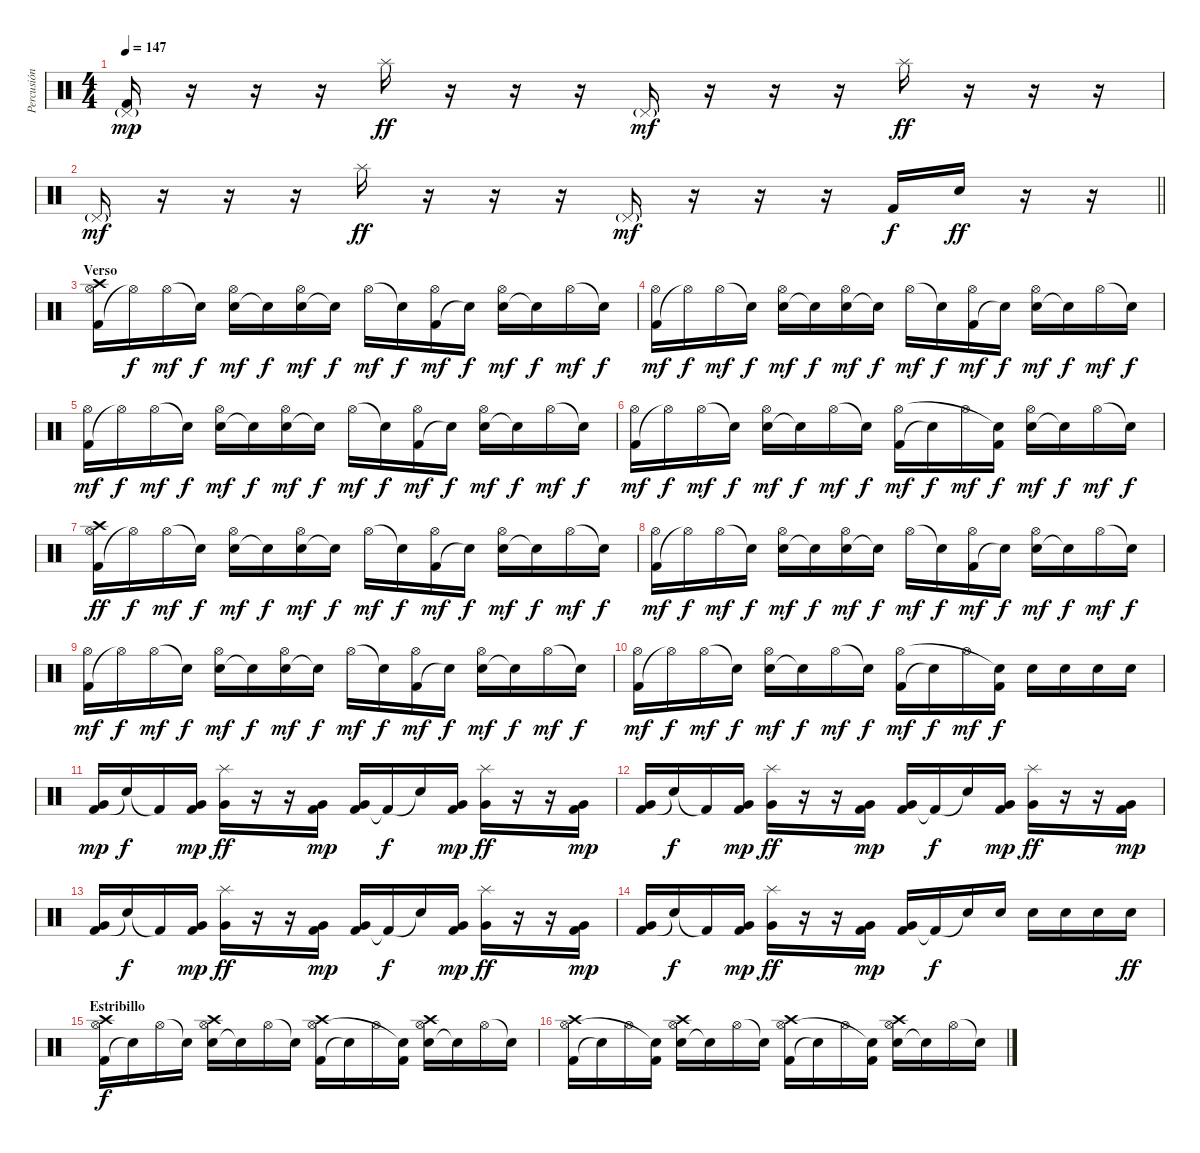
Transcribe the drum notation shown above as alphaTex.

\track ("Percusión" "Percusión") {instrument percussion}
\staff {score}
\articulation defaults
\ts (4 4)
\tempo 147
\clef neutral
\ks c
("Kick (hit) 2" "Pedal Hi-Hat (hit)"{g}).16{dy mp} r.16 r.16 r.16 "Splash (hit)".16{dy ff} r.16 r.16 r.16 "Pedal Hi-Hat (hit)"{g}.16{dy mf} r.16 r.16 r.16 "Splash (hit)".16{dy ff} r.16 r.16 r.16 |
\barLineRight lightlight "Pedal Hi-Hat (hit)"{g}.16{dy mf}
r.16 r.16 r.16 "Splash (hit)".16{dy ff} r.16 r.16 r.16 "Pedal Hi-Hat (hit)"{g}.16{dy mf} r.16 r.16 r.16 "Kick (hit) 2".16{dy f} "Electric Snare (hit)".16{dy ff} r.16 r.16 |
\section ("" "Verso")
("Kick (hit) 2" "Hi-Hat (open)" "Crash high (hit)").16 "Hi-Hat (open)"{t}.16{dy f} "Hi-Hat (open)".16{dy mf} "Snare (hit)"{t}.16{dy f} ("Electric Snare (hit)" "Hi-Hat (open)").16{dy mf} "Snare (hit)"{t}.16{dy f} ("Electric Snare (hit)" "Hi-Hat (open)").16{dy mf} "Snare (hit)"{t}.16{dy f} "Hi-Hat (open)".16{dy mf} "Snare (hit)"{t}.16{dy f} ("Kick (hit) 2" "Hi-Hat (open)").16{dy mf} "Snare (hit)"{t}.16{dy f} ("Electric Snare (hit)" "Hi-Hat (open)").16{dy mf} "Snare (hit)"{t}.16{dy f} "Hi-Hat (open)".16{dy mf} "Snare (hit)"{t}.16{dy f} |
("Kick (hit) 2" "Hi-Hat (open)").16{dy mf} "Hi-Hat (open)"{t}.16{dy f} "Hi-Hat (open)".16{dy mf} "Snare (hit)"{t}.16{dy f} ("Electric Snare (hit)" "Hi-Hat (open)").16{dy mf} "Snare (hit)"{t}.16{dy f} ("Electric Snare (hit)" "Hi-Hat (open)").16{dy mf} "Snare (hit)"{t}.16{dy f} "Hi-Hat (open)".16{dy mf} "Snare (hit)"{t}.16{dy f} ("Kick (hit) 2" "Hi-Hat (open)").16{dy mf} "Snare (hit)"{t}.16{dy f} ("Electric Snare (hit)" "Hi-Hat (open)").16{dy mf} "Snare (hit)"{t}.16{dy f} "Hi-Hat (open)".16{dy mf} "Snare (hit)"{t}.16{dy f} |
("Kick (hit) 2" "Hi-Hat (open)").16{dy mf} "Hi-Hat (open)"{t}.16{dy f} "Hi-Hat (open)".16{dy mf} "Snare (hit)"{t}.16{dy f} ("Electric Snare (hit)" "Hi-Hat (open)").16{dy mf} "Snare (hit)"{t}.16{dy f} ("Electric Snare (hit)" "Hi-Hat (open)").16{dy mf} "Snare (hit)"{t}.16{dy f} "Hi-Hat (open)".16{dy mf} "Snare (hit)"{t}.16{dy f} ("Kick (hit) 2" "Hi-Hat (open)").16{dy mf} "Snare (hit)"{t}.16{dy f} ("Electric Snare (hit)" "Hi-Hat (open)").16{dy mf} "Snare (hit)"{t}.16{dy f} "Hi-Hat (open)".16{dy mf} "Snare (hit)"{t}.16{dy f} |
("Kick (hit) 2" "Hi-Hat (open)").16{dy mf} "Hi-Hat (open)"{t}.16{dy f} "Hi-Hat (open)".16{dy mf} "Snare (hit)"{t}.16{dy f} ("Electric Snare (hit)" "Hi-Hat (open)").16{dy mf} "Snare (hit)"{t}.16{dy f} "Hi-Hat (open)".16{dy mf} "Snare (hit)"{t}.16{dy f} ("Kick (hit) 2" "Hi-Hat (open)").16{dy mf} "Snare (hit)"{t}.16{dy f} "Hi-Hat (open)".16{dy mf} ("Kick (hit) 2" "Snare (hit)"{t}).16{dy f} ("Electric Snare (hit)" "Hi-Hat (open)").16{dy mf} "Snare (hit)"{t}.16{dy f} "Hi-Hat (open)".16{dy mf} "Snare (hit)"{t}.16{dy f} |
("Kick (hit) 2" "Hi-Hat (open)" "Crash high (hit)").16{dy ff} "Hi-Hat (open)"{t}.16{dy f} "Hi-Hat (open)".16{dy mf} "Snare (hit)"{t}.16{dy f} ("Electric Snare (hit)" "Hi-Hat (open)").16{dy mf} "Snare (hit)"{t}.16{dy f} ("Electric Snare (hit)" "Hi-Hat (open)").16{dy mf} "Snare (hit)"{t}.16{dy f} "Hi-Hat (open)".16{dy mf} "Snare (hit)"{t}.16{dy f} ("Kick (hit) 2" "Hi-Hat (open)").16{dy mf} "Snare (hit)"{t}.16{dy f} ("Electric Snare (hit)" "Hi-Hat (open)").16{dy mf} "Snare (hit)"{t}.16{dy f} "Hi-Hat (open)".16{dy mf} "Snare (hit)"{t}.16{dy f} |
("Kick (hit) 2" "Hi-Hat (open)").16{dy mf} "Hi-Hat (open)"{t}.16{dy f} "Hi-Hat (open)".16{dy mf} "Snare (hit)"{t}.16{dy f} ("Electric Snare (hit)" "Hi-Hat (open)").16{dy mf} "Snare (hit)"{t}.16{dy f} ("Electric Snare (hit)" "Hi-Hat (open)").16{dy mf} "Snare (hit)"{t}.16{dy f} "Hi-Hat (open)".16{dy mf} "Snare (hit)"{t}.16{dy f} ("Kick (hit) 2" "Hi-Hat (open)").16{dy mf} "Snare (hit)"{t}.16{dy f} ("Electric Snare (hit)" "Hi-Hat (open)").16{dy mf} "Snare (hit)"{t}.16{dy f} "Hi-Hat (open)".16{dy mf} "Snare (hit)"{t}.16{dy f} |
("Kick (hit) 2" "Hi-Hat (open)").16{dy mf} "Hi-Hat (open)"{t}.16{dy f} "Hi-Hat (open)".16{dy mf} "Snare (hit)"{t}.16{dy f} ("Electric Snare (hit)" "Hi-Hat (open)").16{dy mf} "Snare (hit)"{t}.16{dy f} ("Electric Snare (hit)" "Hi-Hat (open)").16{dy mf} "Snare (hit)"{t}.16{dy f} "Hi-Hat (open)".16{dy mf} "Snare (hit)"{t}.16{dy f} ("Kick (hit) 2" "Hi-Hat (open)").16{dy mf} "Snare (hit)"{t}.16{dy f} ("Electric Snare (hit)" "Hi-Hat (open)").16{dy mf} "Snare (hit)"{t}.16{dy f} "Hi-Hat (open)".16{dy mf} "Snare (hit)"{t}.16{dy f} |
("Kick (hit) 2" "Hi-Hat (open)").16{dy mf} "Hi-Hat (open)"{t}.16{dy f} "Hi-Hat (open)".16{dy mf} "Snare (hit)"{t}.16{dy f} ("Electric Snare (hit)" "Hi-Hat (open)").16{dy mf} "Snare (hit)"{t}.16{dy f} "Hi-Hat (open)".16{dy mf} "Snare (hit)"{t}.16{dy f} ("Kick (hit) 2" "Hi-Hat (open)").16{dy mf} "Snare (hit)"{t}.16{dy f} "Hi-Hat (open)".16{dy mf} ("Kick (hit) 2" "Snare (hit)"{t}).16{dy f} "Electric Snare (hit)".16 "Electric Snare (hit)".16 "Electric Snare (hit)".16 "Electric Snare (hit)".16 |
("Kick (hit) 2" "Very Low Tom (hit)").16{dy mp} "Snare (hit)"{t}.16{dy f} "Kick (hit) 2"{t}.16 ("Kick (hit) 2" "Very Low Tom (hit)").16{dy mp} ("Very Low Tom (hit)" "Splash (hit)").16{dy ff} r.16 r.16 ("Kick (hit) 2" "Very Low Tom (hit)").16{dy mp} ("Kick (hit) 2" "Very Low Tom (hit)").16 "Kick (hit) 2"{t}.16{dy f} "Snare (hit)"{t}.16 ("Kick (hit) 2" "Very Low Tom (hit)").16{dy mp} ("Very Low Tom (hit)" "Splash (hit)").16{dy ff} r.16 r.16 ("Kick (hit) 2" "Very Low Tom (hit)").16{dy mp} |
("Kick (hit) 2" "Very Low Tom (hit)").16 "Snare (hit)"{t}.16{dy f} "Kick (hit) 2"{t}.16 ("Kick (hit) 2" "Very Low Tom (hit)").16{dy mp} ("Very Low Tom (hit)" "Splash (hit)").16{dy ff} r.16 r.16 ("Kick (hit) 2" "Very Low Tom (hit)").16{dy mp} ("Kick (hit) 2" "Very Low Tom (hit)").16 "Kick (hit) 2"{t}.16{dy f} "Snare (hit)"{t}.16 ("Kick (hit) 2" "Very Low Tom (hit)").16{dy mp} ("Very Low Tom (hit)" "Splash (hit)").16{dy ff} r.16 r.16 ("Kick (hit) 2" "Very Low Tom (hit)").16{dy mp} |
("Kick (hit) 2" "Very Low Tom (hit)").16 "Snare (hit)"{t}.16{dy f} "Kick (hit) 2"{t}.16 ("Kick (hit) 2" "Very Low Tom (hit)").16{dy mp} ("Very Low Tom (hit)" "Splash (hit)").16{dy ff} r.16 r.16 ("Kick (hit) 2" "Very Low Tom (hit)").16{dy mp} ("Kick (hit) 2" "Very Low Tom (hit)").16 "Kick (hit) 2"{t}.16{dy f} "Snare (hit)"{t}.16 ("Kick (hit) 2" "Very Low Tom (hit)").16{dy mp} ("Very Low Tom (hit)" "Splash (hit)").16{dy ff} r.16 r.16 ("Kick (hit) 2" "Very Low Tom (hit)").16{dy mp} |
("Kick (hit) 2" "Very Low Tom (hit)").16 "Snare (hit)"{t}.16{dy f} "Kick (hit) 2"{t}.16 ("Kick (hit) 2" "Very Low Tom (hit)").16{dy mp} ("Very Low Tom (hit)" "Splash (hit)").16{dy ff} r.16 r.16 ("Kick (hit) 2" "Very Low Tom (hit)").16{dy mp} ("Kick (hit) 2" "Very Low Tom (hit)").16 "Kick (hit) 2"{t}.16{dy f} "Snare (hit)"{t}.16 "Electric Snare (hit)".16 "Electric Snare (hit)".16 "Electric Snare (hit)".16 "Electric Snare (hit)".16 "Electric Snare (hit)".16{dy ff} |
\section ("" "Estribillo")
("Kick (hit) 2" "Hi-Hat (open)" "Crash high (hit)").16{dy f} "Snare (hit)"{t}.16 "Hi-Hat (open)".16 "Snare (hit)"{t}.16 ("Electric Snare (hit)" "Hi-Hat (open)" "Crash high (hit)").16 "Snare (hit)"{t}.16 "Hi-Hat (open)".16 "Snare (hit)"{t}.16 ("Kick (hit) 2" "Hi-Hat (open)" "Crash high (hit)").16 "Snare (hit)"{t}.16 "Hi-Hat (open)".16 ("Kick (hit) 2" "Snare (hit)"{t}).16 ("Electric Snare (hit)" "Hi-Hat (open)" "Crash high (hit)").16 "Snare (hit)"{t}.16 "Hi-Hat (open)".16 "Snare (hit)"{t}.16 |
("Kick (hit) 2" "Hi-Hat (open)" "Crash high (hit)").16 "Snare (hit)"{t}.16 "Hi-Hat (open)".16 ("Kick (hit) 2" "Snare (hit)"{t}).16 ("Electric Snare (hit)" "Hi-Hat (open)" "Crash high (hit)").16 "Snare (hit)"{t}.16 "Hi-Hat (open)".16 "Snare (hit)"{t}.16 ("Kick (hit) 2" "Hi-Hat (open)" "Crash high (hit)").16 "Snare (hit)"{t}.16 "Hi-Hat (open)".16 ("Kick (hit) 2" "Snare (hit)"{t}).16 ("Electric Snare (hit)" "Hi-Hat (open)" "Crash high (hit)").16 "Snare (hit)"{t}.16 "Hi-Hat (open)".16 "Snare (hit)"{t}.16
